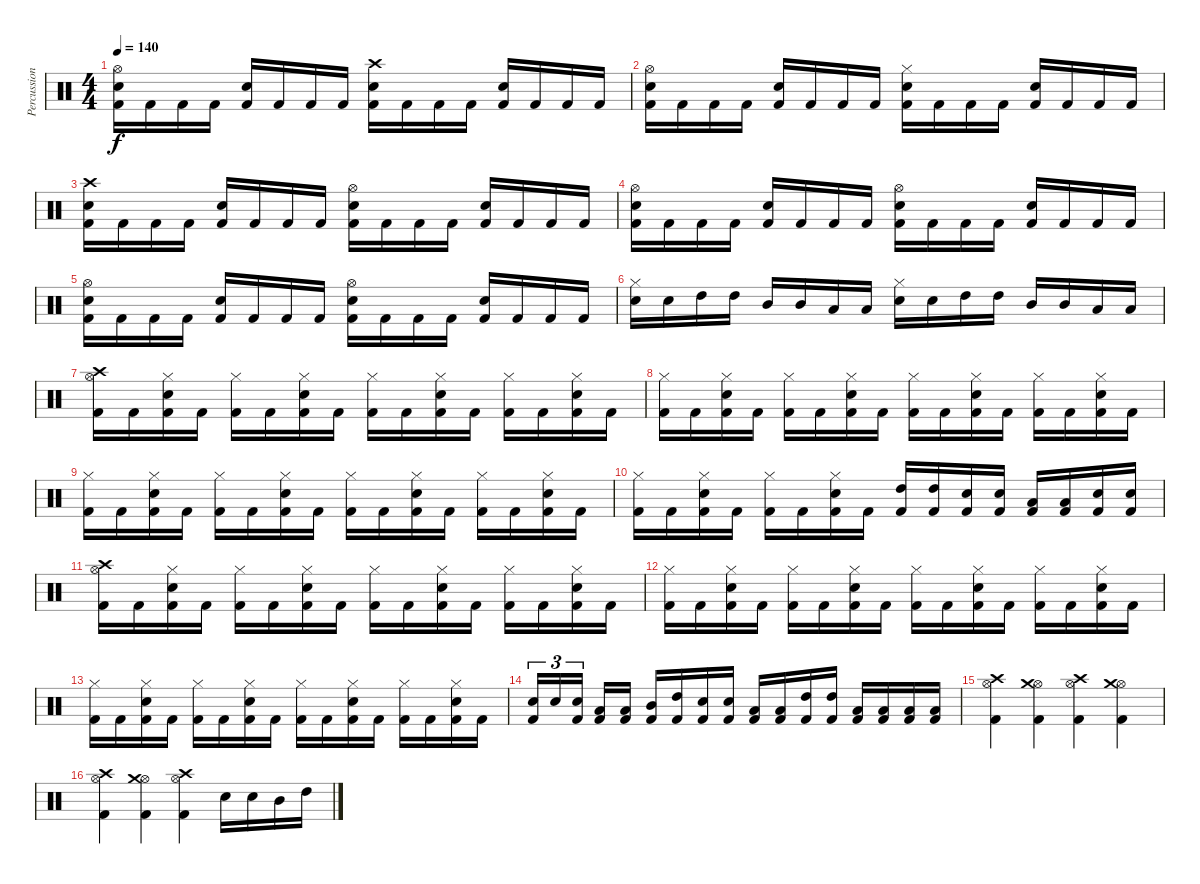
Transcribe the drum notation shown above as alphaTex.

\track ("Percussions" "Percussion") {instrument percussion}
\staff {score}
\articulation defaults
\ts (4 4)
\tempo 140
\clef neutral
\ks c
("Hi-Hat (open)" "Snare (hit) 2" "Kick (hit) 2").16{dy f} "Kick (hit) 2".16 "Kick (hit) 2".16 "Kick (hit) 2".16 ("Snare (hit) 2" "Kick (hit) 2").16 "Kick (hit) 2".16 "Kick (hit) 2".16 "Kick (hit) 2".16 ("Crash high (hit)" "Snare (hit) 2" "Kick (hit) 2").16 "Kick (hit) 2".16 "Kick (hit) 2".16 "Kick (hit) 2".16 ("Snare (hit) 2" "Kick (hit) 2").16 "Kick (hit) 2".16 "Kick (hit) 2".16 "Kick (hit) 2".16 |
("Hi-Hat (open)" "Snare (hit) 2" "Kick (hit) 2").16 "Kick (hit) 2".16 "Kick (hit) 2".16 "Kick (hit) 2".16 ("Snare (hit) 2" "Kick (hit) 2").16 "Kick (hit) 2".16 "Kick (hit) 2".16 "Kick (hit) 2".16 ("Hi-Hat (closed)" "Snare (hit) 2" "Kick (hit) 2").16 "Kick (hit) 2".16 "Kick (hit) 2".16 "Kick (hit) 2".16 ("Snare (hit) 2" "Kick (hit) 2").16 "Kick (hit) 2".16 "Kick (hit) 2".16 "Kick (hit) 2".16 |
("Crash high (hit)" "Snare (hit) 2" "Kick (hit) 2").16 "Kick (hit) 2".16 "Kick (hit) 2".16 "Kick (hit) 2".16 ("Snare (hit) 2" "Kick (hit) 2").16 "Kick (hit) 2".16 "Kick (hit) 2".16 "Kick (hit) 2".16 ("Hi-Hat (open)" "Snare (hit) 2" "Kick (hit) 2").16 "Kick (hit) 2".16 "Kick (hit) 2".16 "Kick (hit) 2".16 ("Snare (hit) 2" "Kick (hit) 2").16 "Kick (hit) 2".16 "Kick (hit) 2".16 "Kick (hit) 2".16 |
("Hi-Hat (open)" "Snare (hit) 2" "Kick (hit) 2").16 "Kick (hit) 2".16 "Kick (hit) 2".16 "Kick (hit) 2".16 ("Snare (hit) 2" "Kick (hit) 2").16 "Kick (hit) 2".16 "Kick (hit) 2".16 "Kick (hit) 2".16 ("Hi-Hat (open)" "Snare (hit) 2" "Kick (hit) 2").16 "Kick (hit) 2".16 "Kick (hit) 2".16 "Kick (hit) 2".16 ("Snare (hit) 2" "Kick (hit) 2").16 "Kick (hit) 2".16 "Kick (hit) 2".16 "Kick (hit) 2".16 |
("Hi-Hat (open)" "Snare (hit) 2" "Kick (hit) 2").16 "Kick (hit) 2".16 "Kick (hit) 2".16 "Kick (hit) 2".16 ("Snare (hit) 2" "Kick (hit) 2").16 "Kick (hit) 2".16 "Kick (hit) 2".16 "Kick (hit) 2".16 ("Hi-Hat (open)" "Snare (hit) 2" "Kick (hit) 2").16 "Kick (hit) 2".16 "Kick (hit) 2".16 "Kick (hit) 2".16 ("Snare (hit) 2" "Kick (hit) 2").16 "Kick (hit) 2".16 "Kick (hit) 2".16 "Kick (hit) 2".16 |
("Hi-Hat (closed)" "Snare (hit) 2").16 "Snare (hit) 2".16 "High Tom (hit)".16 "High Tom (hit)".16 "Mid Tom (hit)".16 "Mid Tom (hit)".16 "Low Tom (hit)".16 "Low Tom (hit)".16 ("Hi-Hat (closed)" "Snare (hit) 2").16 "Snare (hit) 2".16 "High Tom (hit)".16 "High Tom (hit)".16 "Mid Tom (hit)".16 "Mid Tom (hit)".16 "Low Tom (hit)".16 "Low Tom (hit)".16 |
("Hi-Hat (open)" "Crash high (hit)" "Kick (hit) 2").16 "Kick (hit) 2".16 ("Hi-Hat (closed)" "Snare (hit) 2" "Kick (hit) 2").16 "Kick (hit) 2".16 ("Hi-Hat (closed)" "Kick (hit) 2").16 "Kick (hit) 2".16 ("Hi-Hat (closed)" "Snare (hit) 2" "Kick (hit) 2").16 "Kick (hit) 2".16 ("Hi-Hat (closed)" "Kick (hit) 2").16 "Kick (hit) 2".16 ("Hi-Hat (closed)" "Snare (hit) 2" "Kick (hit) 2").16 "Kick (hit) 2".16 ("Hi-Hat (closed)" "Kick (hit) 2").16 "Kick (hit) 2".16 ("Hi-Hat (closed)" "Snare (hit) 2" "Kick (hit) 2").16 "Kick (hit) 2".16 |
("Hi-Hat (closed)" "Kick (hit) 2").16 "Kick (hit) 2".16 ("Hi-Hat (closed)" "Snare (hit) 2" "Kick (hit) 2").16 "Kick (hit) 2".16 ("Hi-Hat (closed)" "Kick (hit) 2").16 "Kick (hit) 2".16 ("Hi-Hat (closed)" "Snare (hit) 2" "Kick (hit) 2").16 "Kick (hit) 2".16 ("Hi-Hat (closed)" "Kick (hit) 2").16 "Kick (hit) 2".16 ("Hi-Hat (closed)" "Snare (hit) 2" "Kick (hit) 2").16 "Kick (hit) 2".16 ("Hi-Hat (closed)" "Kick (hit) 2").16 "Kick (hit) 2".16 ("Hi-Hat (closed)" "Snare (hit) 2" "Kick (hit) 2").16 "Kick (hit) 2".16 |
("Hi-Hat (closed)" "Kick (hit) 2").16 "Kick (hit) 2".16 ("Hi-Hat (closed)" "Snare (hit) 2" "Kick (hit) 2").16 "Kick (hit) 2".16 ("Hi-Hat (closed)" "Kick (hit) 2").16 "Kick (hit) 2".16 ("Hi-Hat (closed)" "Snare (hit) 2" "Kick (hit) 2").16 "Kick (hit) 2".16 ("Hi-Hat (closed)" "Kick (hit) 2").16 "Kick (hit) 2".16 ("Hi-Hat (closed)" "Snare (hit) 2" "Kick (hit) 2").16 "Kick (hit) 2".16 ("Hi-Hat (closed)" "Kick (hit) 2").16 "Kick (hit) 2".16 ("Hi-Hat (closed)" "Snare (hit) 2" "Kick (hit) 2").16 "Kick (hit) 2".16 |
("Hi-Hat (closed)" "Kick (hit) 2").16 "Kick (hit) 2".16 ("Hi-Hat (closed)" "Snare (hit) 2" "Kick (hit) 2").16 "Kick (hit) 2".16 ("Hi-Hat (closed)" "Kick (hit) 2").16 "Kick (hit) 2".16 ("Hi-Hat (closed)" "Snare (hit) 2" "Kick (hit) 2").16 "Kick (hit) 2".16 ("High Tom (hit)" "Kick (hit) 2").16 ("High Tom (hit)" "Kick (hit) 2").16 ("Snare (hit) 2" "Kick (hit) 2").16 ("Snare (hit) 2" "Kick (hit) 2").16 ("Low Tom (hit)" "Kick (hit) 2").16 ("Low Tom (hit)" "Kick (hit) 2").16 ("Snare (hit) 2" "Kick (hit) 2").16 ("Snare (hit) 2" "Kick (hit) 2").16 |
("Hi-Hat (open)" "Crash high (hit)" "Kick (hit) 2").16 "Kick (hit) 2".16 ("Hi-Hat (closed)" "Snare (hit) 2" "Kick (hit) 2").16 "Kick (hit) 2".16 ("Hi-Hat (closed)" "Kick (hit) 2").16 "Kick (hit) 2".16 ("Hi-Hat (closed)" "Snare (hit) 2" "Kick (hit) 2").16 "Kick (hit) 2".16 ("Hi-Hat (closed)" "Kick (hit) 2").16 "Kick (hit) 2".16 ("Hi-Hat (closed)" "Snare (hit) 2" "Kick (hit) 2").16 "Kick (hit) 2".16 ("Hi-Hat (closed)" "Kick (hit) 2").16 "Kick (hit) 2".16 ("Hi-Hat (closed)" "Snare (hit) 2" "Kick (hit) 2").16 "Kick (hit) 2".16 |
("Hi-Hat (closed)" "Kick (hit) 2").16 "Kick (hit) 2".16 ("Hi-Hat (closed)" "Snare (hit) 2" "Kick (hit) 2").16 "Kick (hit) 2".16 ("Hi-Hat (closed)" "Kick (hit) 2").16 "Kick (hit) 2".16 ("Hi-Hat (closed)" "Snare (hit) 2" "Kick (hit) 2").16 "Kick (hit) 2".16 ("Hi-Hat (closed)" "Kick (hit) 2").16 "Kick (hit) 2".16 ("Hi-Hat (closed)" "Snare (hit) 2" "Kick (hit) 2").16 "Kick (hit) 2".16 ("Hi-Hat (closed)" "Kick (hit) 2").16 "Kick (hit) 2".16 ("Hi-Hat (closed)" "Snare (hit) 2" "Kick (hit) 2").16 "Kick (hit) 2".16 |
("Hi-Hat (closed)" "Kick (hit) 2").16 "Kick (hit) 2".16 ("Hi-Hat (closed)" "Snare (hit) 2" "Kick (hit) 2").16 "Kick (hit) 2".16 ("Hi-Hat (closed)" "Kick (hit) 2").16 "Kick (hit) 2".16 ("Hi-Hat (closed)" "Snare (hit) 2" "Kick (hit) 2").16 "Kick (hit) 2".16 ("Hi-Hat (closed)" "Kick (hit) 2").16 "Kick (hit) 2".16 ("Hi-Hat (closed)" "Snare (hit) 2" "Kick (hit) 2").16 "Kick (hit) 2".16 ("Hi-Hat (closed)" "Kick (hit) 2").16 "Kick (hit) 2".16 ("Hi-Hat (closed)" "Snare (hit) 2" "Kick (hit) 2").16 "Kick (hit) 2".16 |
("Snare (hit) 2" "Kick (hit) 2").16{tu (3 2)} "Snare (hit) 2".16{tu (3 2)} ("Snare (hit) 2" "Kick (hit) 2").16{tu (3 2)} ("Low Tom (hit)" "Kick (hit) 2").16 ("Low Tom (hit)" "Kick (hit) 2").16 ("Mid Tom (hit)" "Kick (hit) 2").16 ("High Tom (hit)" "Kick (hit) 2").16 ("Snare (hit) 2" "Kick (hit) 2").16 ("Snare (hit) 2" "Kick (hit) 2").16 ("Low Tom (hit)" "Kick (hit) 2").16 ("Low Tom (hit)" "Kick (hit) 2").16 ("High Tom (hit)" "Kick (hit) 2").16 ("High Tom (hit)" "Kick (hit) 2").16 ("Low Tom (hit)" "Kick (hit) 2").16 ("Low Tom (hit)" "Kick (hit) 2").16 ("Low Tom (hit)" "Kick (hit) 2").16 ("Low Tom (hit)" "Kick (hit) 2").16 |
("Hi-Hat (open)" "Crash high (hit)" "Kick (hit) 2").4 ("Hi-Hat (open)" "Crash medium (hit)" "Kick (hit) 2").4 ("Hi-Hat (open)" "Crash high (hit)" "Kick (hit) 2").4 ("Hi-Hat (open)" "Crash medium (hit)" "Kick (hit) 2").4 |
("Hi-Hat (open)" "Crash high (hit)" "Kick (hit) 2").4 ("Hi-Hat (open)" "Crash medium (hit)" "Kick (hit) 2").4 ("Hi-Hat (open)" "Crash high (hit)" "Kick (hit) 2").4 "Snare (hit) 2".16 "Snare (hit) 2".16 "Mid Tom (hit)".16 "High Tom (hit)".16
